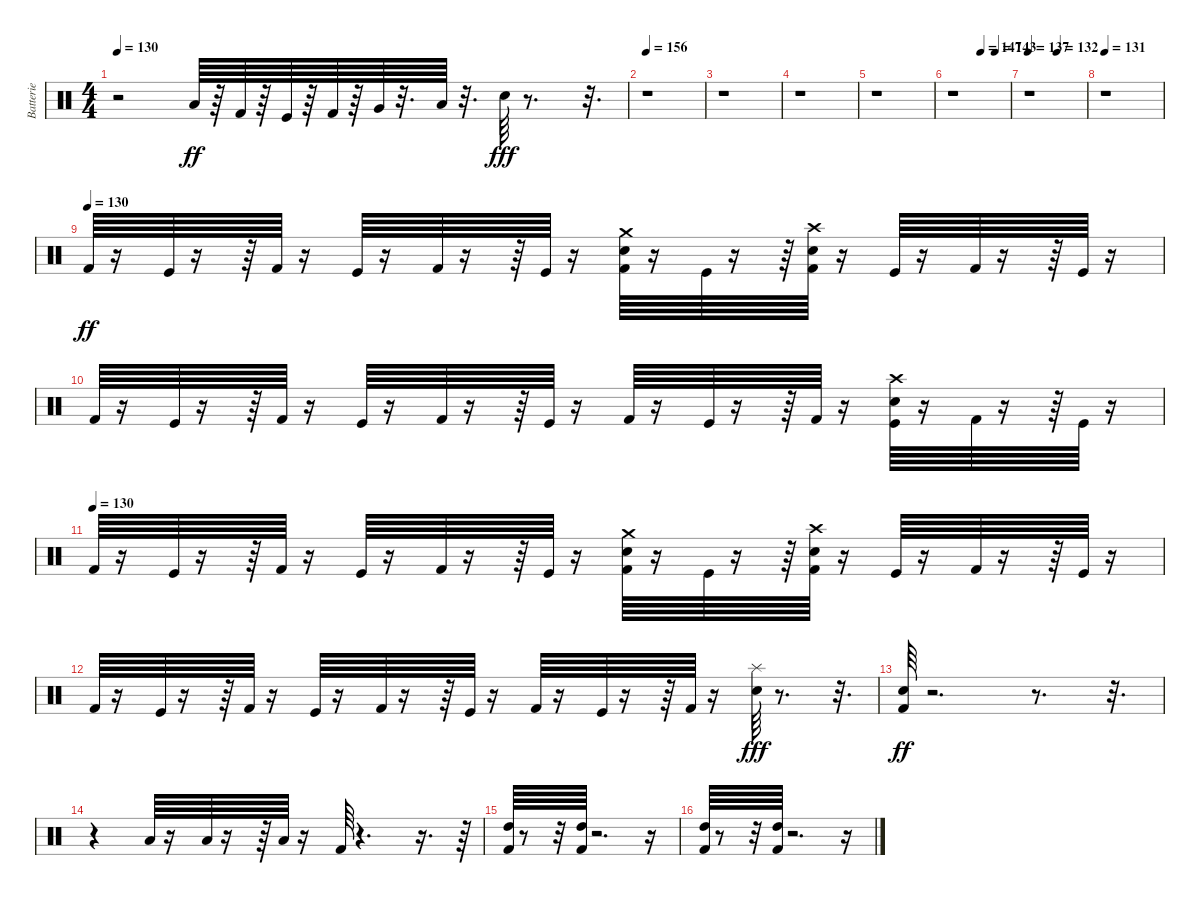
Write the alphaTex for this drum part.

\track ("Batterie" "Batterie") {instrument percussion}
\staff {score}
\articulation defaults
\ts (4 4)
\tempo 130
\clef neutral
\ks c
r.2{dy fff} "Low Tom (hit)".64{dy ff} r.64 "Kick (hit) 2".64 r.64 "Kick (hit)".64 r.64 "Kick (hit) 2".64 r.64 "Very Low Tom (hit)".64 r.32{d} "Low Floor Tom (hit)".64 r.32{d} "Electric Snare (hit)".64{dy fff} r.8{d} r.32{d} |
\tempo 156
r.1 |
r.1 |
r.1 |
r.1 |
\tempo (147 0.5)
\tempo (143 0.75)
r.1 |
\tempo 137
\tempo (132 0.5)
r.1 |
\tempo 131
r.1 |
\tempo (130)
"Kick (hit) 2".64{dy ff} r.16 "Kick (hit)".64 r.16 r.64 "Kick (hit) 2".64 r.16 "Kick (hit)".64 r.16 "Kick (hit) 2".64 r.16 r.64 "Kick (hit)".64 r.16 ("Crash medium (hit)" "Snare (hit) 2" "Kick (hit) 2").64 r.16 "Kick (hit)".64 r.16 r.64 ("Crash high (hit)" "Snare (hit) 2" "Kick (hit) 2").64 r.16 "Kick (hit)".64 r.16 "Kick (hit) 2".64 r.16 r.64 "Kick (hit)".64 r.16 |
"Kick (hit) 2".64 r.16 "Kick (hit)".64 r.16 r.64 "Kick (hit) 2".64 r.16 "Kick (hit)".64 r.16 "Kick (hit) 2".64 r.16 r.64 "Kick (hit)".64 r.16 "Kick (hit) 2".64 r.16 "Kick (hit)".64 r.16 r.64 "Kick (hit) 2".64 r.16 ("Snare (hit) 2" "Crash high (hit)" "Kick (hit)").64 r.16 "Kick (hit) 2".64 r.16 r.64 "Kick (hit)".64 r.16 |
\tempo (130)
"Kick (hit) 2".64 r.16 "Kick (hit)".64 r.16 r.64 "Kick (hit) 2".64 r.16 "Kick (hit)".64 r.16 "Kick (hit) 2".64 r.16 r.64 "Kick (hit)".64 r.16 ("Crash medium (hit)" "Snare (hit) 2" "Kick (hit) 2").64 r.16 "Kick (hit)".64 r.16 r.64 ("Crash high (hit)" "Snare (hit) 2" "Kick (hit) 2").64 r.16 "Kick (hit)".64 r.16 "Kick (hit) 2".64 r.16 r.64 "Kick (hit)".64 r.16 |
"Kick (hit) 2".64 r.16 "Kick (hit)".64 r.16 r.64 "Kick (hit) 2".64 r.16 "Kick (hit)".64 r.16 "Kick (hit) 2".64 r.16 r.64 "Kick (hit)".64 r.16 "Kick (hit) 2".64 r.16 "Kick (hit)".64 r.16 r.64 "Kick (hit) 2".64 r.16 ("Splash (hit)" "Snare (hit) 2").64{dy fff} r.8{d} r.32{d} |
("Snare (hit) 2" "Kick (hit) 2").64{dy ff} r.2{d} r.8{d} r.32{d} |
r.4 "Low Tom (hit)".64 r.16 "Low Tom (hit)".64 r.16 r.64 "Low Floor Tom (hit)".64 r.16 "Kick (hit) 2".64 r.4{d} r.16{d} r.64 |
("Kick (hit) 2" "High Tom (hit)").64{volume 16} r.8 r.32 ("High Tom (hit)" "Kick (hit) 2").64{volume 16} r.2{d} r.16 |
("Kick (hit) 2" "High Tom (hit)").64{volume 16} r.8 r.32 ("High Tom (hit)" "Kick (hit) 2").64{volume 16} r.2{d} r.16
